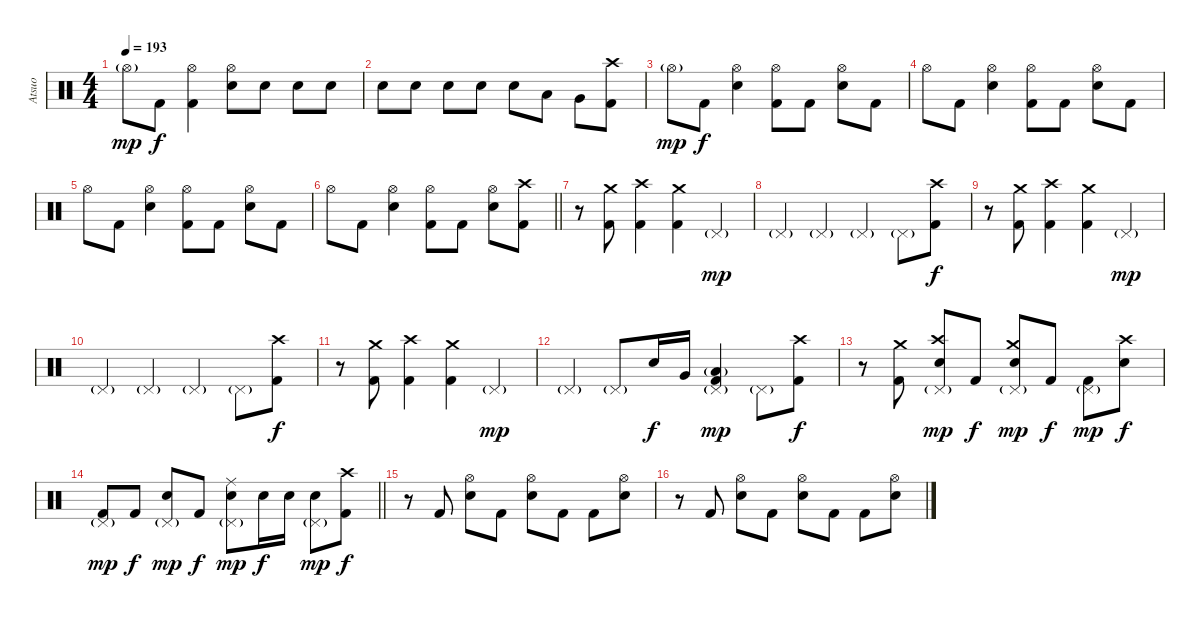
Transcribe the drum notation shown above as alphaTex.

\track ("Atsuo" "Atsuo") {instrument percussion}
\staff {score}
\articulation defaults
\ts (4 4)
\tempo 193
\clef neutral
\ks c "Hi-Hat (open)"{g}.8{dy mp} "Kick (hit) 2".8{dy f}
("Hi-Hat (open)" "Kick (hit) 2").4 ("Hi-Hat (open)" "Electric Snare (hit)").8 "Electric Snare (hit)".8 "Electric Snare (hit)".8 "Electric Snare (hit)".8 |
"Electric Snare (hit)".8 "Electric Snare (hit)".8 "Electric Snare (hit)".8 "Electric Snare (hit)".8 "Electric Snare (hit)".8 "Low Tom (hit)".8 "Very Low Tom (hit)".8 ("Crash high (hit)" "Kick (hit) 2").8 |
"Hi-Hat (open)"{g}.8{dy mp} "Kick (hit) 2".8{dy f} ("Hi-Hat (open)" "Electric Snare (hit)").4 ("Hi-Hat (open)" "Kick (hit) 2").8 "Kick (hit) 2".8 ("Hi-Hat (open)" "Electric Snare (hit)").8 "Kick (hit) 2".8 |
"Hi-Hat (open)".8 "Kick (hit) 2".8 ("Hi-Hat (open)" "Electric Snare (hit)").4 ("Hi-Hat (open)" "Kick (hit) 2").8 "Kick (hit) 2".8 ("Hi-Hat (open)" "Electric Snare (hit)").8 "Kick (hit) 2".8 |
"Hi-Hat (open)".8 "Kick (hit) 2".8 ("Hi-Hat (open)" "Electric Snare (hit)").4 ("Hi-Hat (open)" "Kick (hit) 2").8 "Kick (hit) 2".8 ("Hi-Hat (open)" "Electric Snare (hit)").8 "Kick (hit) 2".8 |
\barLineRight lightlight "Hi-Hat (open)".8 "Kick (hit) 2".8
("Hi-Hat (open)" "Electric Snare (hit)").4 ("Hi-Hat (open)" "Kick (hit) 2").8 "Kick (hit) 2".8 ("Hi-Hat (open)" "Electric Snare (hit)").8 ("Crash high (hit)" "Kick (hit) 2").8 |
\section ("" "")
r.8 ("Crash medium (hit)" "Kick (hit) 2").8 ("Crash high (hit)" "Kick (hit) 2").4 ("Crash medium (hit)" "Kick (hit) 2").4 "Pedal Hi-Hat (hit)"{g}.4{dy mp} |
"Pedal Hi-Hat (hit)"{g}.4 "Pedal Hi-Hat (hit)"{g}.4 "Pedal Hi-Hat (hit)"{g}.4 "Pedal Hi-Hat (hit)"{g}.8 ("Crash high (hit)" "Kick (hit) 2").8{dy f} |
r.8 ("Crash medium (hit)" "Kick (hit) 2").8 ("Crash high (hit)" "Kick (hit) 2").4 ("Crash medium (hit)" "Kick (hit) 2").4 "Pedal Hi-Hat (hit)"{g}.4{dy mp} |
"Pedal Hi-Hat (hit)"{g}.4 "Pedal Hi-Hat (hit)"{g}.4 "Pedal Hi-Hat (hit)"{g}.4 "Pedal Hi-Hat (hit)"{g}.8 ("Crash high (hit)" "Kick (hit) 2").8{dy f} |
r.8 ("Crash medium (hit)" "Kick (hit) 2").8 ("Crash high (hit)" "Kick (hit) 2").4 ("Crash medium (hit)" "Kick (hit) 2").4 "Pedal Hi-Hat (hit)"{g}.4{dy mp} |
"Pedal Hi-Hat (hit)"{g}.4 "Pedal Hi-Hat (hit)"{g}.8 "Electric Snare (hit)".16{dy f} "Very Low Tom (hit)".16 ("Pedal Hi-Hat (hit)"{g} "Low Floor Tom (hit)"{g} "Kick (hit) 2").4{dy mp} "Pedal Hi-Hat (hit)"{g}.8 ("Crash high (hit)" "Kick (hit) 2").8{dy f} |
r.8 ("Crash medium (hit)" "Kick (hit) 2").8 ("Pedal Hi-Hat (hit)"{g} "Crash high (hit)" "Electric Snare (hit)").8{dy mp} "Kick (hit) 2".8{dy f} ("Pedal Hi-Hat (hit)"{g} "Crash medium (hit)" "Electric Snare (hit)").8{dy mp} "Kick (hit) 2".8{dy f} ("Pedal Hi-Hat (hit)"{g} "Kick (hit) 2").8{dy mp} ("Crash high (hit)" "Electric Snare (hit)").8{dy f} |
\barLineRight lightlight
("Pedal Hi-Hat (hit)"{g} "Kick (hit) 2").8{dy mp} "Kick (hit) 2".8{dy f} ("Pedal Hi-Hat (hit)"{g} "Electric Snare (hit)").8{dy mp} "Kick (hit) 2".8{dy f} ("Pedal Hi-Hat (hit)"{g} "Ride (middle)" "Electric Snare (hit)").8{dy mp} "Electric Snare (hit)".16{dy f} "Electric Snare (hit)".16 ("Pedal Hi-Hat (hit)"{g} "Electric Snare (hit)").8{dy mp} ("Crash high (hit)" "Kick (hit) 2").8{dy f} |
\section ("" "")
r.8 "Kick (hit) 2".8 ("Hi-Hat (open)" "Electric Snare (hit)").8 "Kick (hit) 2".8 ("Hi-Hat (open)" "Electric Snare (hit)").8 "Kick (hit) 2".8 "Kick (hit) 2".8 ("Hi-Hat (open)" "Electric Snare (hit)").8 |
r.8 "Kick (hit) 2".8 ("Hi-Hat (open)" "Electric Snare (hit)").8 "Kick (hit) 2".8 ("Hi-Hat (open)" "Electric Snare (hit)").8 "Kick (hit) 2".8 "Kick (hit) 2".8 ("Hi-Hat (open)" "Electric Snare (hit)").8
